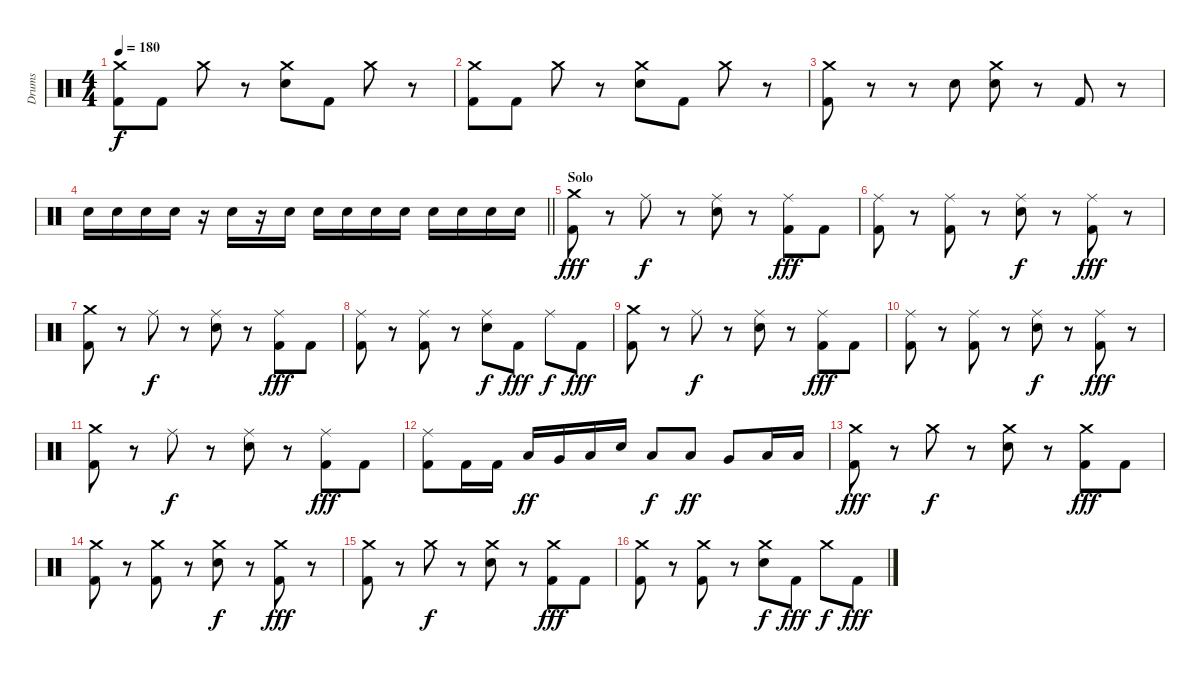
\track ("Drums" "Drums") {instrument percussion}
\staff {score}
\articulation defaults
\ts (4 4)
\tempo 180
\clef neutral
\ks c
("Crash medium (hit)" "Kick (hit) 2").8{dy f} "Kick (hit) 2".8 "Crash medium (hit)".8 r.8 ("Crash medium (hit)" "Electric Snare (hit)").8 "Kick (hit) 2".8 "Crash medium (hit)".8 r.8 |
("Crash medium (hit)" "Kick (hit) 2").8 "Kick (hit) 2".8 "Crash medium (hit)".8 r.8 ("Crash medium (hit)" "Electric Snare (hit)").8 "Kick (hit) 2".8 "Crash medium (hit)".8 r.8 |
("Crash medium (hit)" "Kick (hit) 2").8 r.8 r.8 "Electric Snare (hit)".8 ("Crash medium (hit)" "Electric Snare (hit)").8 r.8 "Kick (hit) 2".8 r.8 |
\barLineRight lightlight "Electric Snare (hit)".16 "Electric Snare (hit)".16 "Electric Snare (hit)".16 "Electric Snare (hit)".16
r.16 "Electric Snare (hit)".16 r.16 "Electric Snare (hit)".16 "Electric Snare (hit)".16 "Electric Snare (hit)".16 "Electric Snare (hit)".16 "Electric Snare (hit)".16 "Electric Snare (hit)".16 "Electric Snare (hit)".16 "Electric Snare (hit)".16 "Electric Snare (hit)".16 |
\section ("" "Solo")
("Crash medium (hit)" "Kick (hit) 2").8{dy fff} r.8 "Ride (middle)".8{dy f} r.8 ("Ride (middle)" "Electric Snare (hit)").8 r.8 ("Ride (middle)" "Kick (hit) 2").8{dy fff} "Kick (hit) 2".8 |
("Ride (middle)" "Kick (hit) 2").8 r.8 ("Ride (middle)" "Kick (hit) 2").8 r.8 ("Ride (middle)" "Electric Snare (hit)").8{dy f} r.8 ("Ride (middle)" "Kick (hit) 2").8{dy fff} r.8 |
("Crash medium (hit)" "Kick (hit) 2").8 r.8 "Ride (middle)".8{dy f} r.8 ("Ride (middle)" "Electric Snare (hit)").8 r.8 ("Ride (middle)" "Kick (hit) 2").8{dy fff} "Kick (hit) 2".8 |
("Ride (middle)" "Kick (hit) 2").8 r.8 ("Ride (middle)" "Kick (hit) 2").8 r.8 ("Ride (middle)" "Electric Snare (hit)").8{dy f} "Kick (hit) 2".8{dy fff} "Ride (middle)".8{dy f} "Kick (hit) 2".8{dy fff} |
("Crash medium (hit)" "Kick (hit) 2").8 r.8 "Ride (middle)".8{dy f} r.8 ("Ride (middle)" "Electric Snare (hit)").8 r.8 ("Ride (middle)" "Kick (hit) 2").8{dy fff} "Kick (hit) 2".8 |
("Ride (middle)" "Kick (hit) 2").8 r.8 ("Ride (middle)" "Kick (hit) 2").8 r.8 ("Ride (middle)" "Electric Snare (hit)").8{dy f} r.8 ("Ride (middle)" "Kick (hit) 2").8{dy fff} r.8 |
("Crash medium (hit)" "Kick (hit) 2").8 r.8 "Ride (middle)".8{dy f} r.8 ("Ride (middle)" "Electric Snare (hit)").8 r.8 ("Ride (middle)" "Kick (hit) 2").8{dy fff} "Kick (hit) 2".8 |
("Ride (middle)" "Kick (hit) 2").8 "Kick (hit) 2".16 "Kick (hit) 2".16 "Low Tom (hit)".16{dy ff} "Very Low Tom (hit)".16 "Low Floor Tom (hit)".16 "Electric Snare (hit)".16 "Low Tom (hit)".8{dy f} "Low Floor Tom (hit)".8{dy ff} "Very Low Tom (hit)".8 "Low Tom (hit)".16 "Low Tom (hit)".16 |
("Crash medium (hit)" "Kick (hit) 2").8{dy fff} r.8 "Crash medium (hit)".8{dy f} r.8 ("Crash medium (hit)" "Electric Snare (hit)").8 r.8 ("Crash medium (hit)" "Kick (hit) 2").8{dy fff} "Kick (hit) 2".8 |
("Crash medium (hit)" "Kick (hit) 2").8 r.8 ("Crash medium (hit)" "Kick (hit) 2").8 r.8 ("Crash medium (hit)" "Electric Snare (hit)").8{dy f} r.8 ("Crash medium (hit)" "Kick (hit) 2").8{dy fff} r.8 |
("Crash medium (hit)" "Kick (hit) 2").8 r.8 "Crash medium (hit)".8{dy f} r.8 ("Crash medium (hit)" "Electric Snare (hit)").8 r.8 ("Crash medium (hit)" "Kick (hit) 2").8{dy fff} "Kick (hit) 2".8 |
("Crash medium (hit)" "Kick (hit) 2").8 r.8 ("Crash medium (hit)" "Kick (hit) 2").8 r.8 ("Crash medium (hit)" "Electric Snare (hit)").8{dy f} "Kick (hit) 2".8{dy fff} "Crash medium (hit)".8{dy f} "Kick (hit) 2".8{dy fff}
